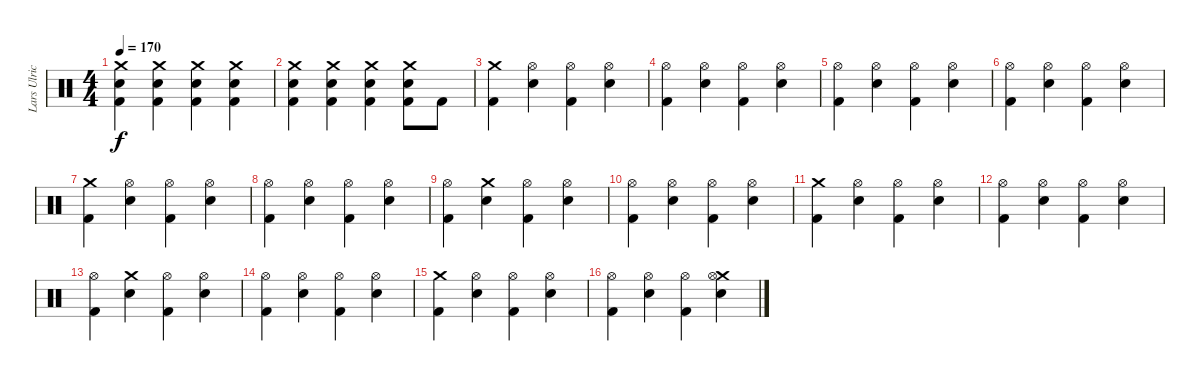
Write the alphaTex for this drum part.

\track ("Lars Ulrich" "Lars Ulric") {instrument percussion}
\staff {score}
\articulation defaults
\ts (4 4)
\tempo 170
\clef neutral
\ks c
("Crash medium (hit)" "Electric Snare (hit)" "Kick (hit) 2").4{dy f} ("Crash medium (hit)" "Electric Snare (hit)" "Kick (hit) 2").4 ("Crash medium (hit)" "Electric Snare (hit)" "Kick (hit) 2").4 ("Crash medium (hit)" "Electric Snare (hit)" "Kick (hit) 2").4 |
("Crash medium (hit)" "Electric Snare (hit)" "Kick (hit) 2").4 ("Crash medium (hit)" "Electric Snare (hit)" "Kick (hit) 2").4 ("Crash medium (hit)" "Electric Snare (hit)" "Kick (hit) 2").4 ("Crash medium (hit)" "Electric Snare (hit)" "Kick (hit) 2").8 "Kick (hit) 2".8 |
("Crash medium (hit)" "Kick (hit) 2").4 ("Hi-Hat (open)" "Electric Snare (hit)").4 ("Hi-Hat (open)" "Kick (hit) 2").4 ("Hi-Hat (open)" "Electric Snare (hit)").4 |
("Hi-Hat (open)" "Kick (hit) 2").4 ("Hi-Hat (open)" "Electric Snare (hit)").4 ("Hi-Hat (open)" "Kick (hit) 2").4 ("Hi-Hat (open)" "Electric Snare (hit)").4 |
("Hi-Hat (open)" "Kick (hit) 2").4 ("Hi-Hat (open)" "Electric Snare (hit)").4 ("Hi-Hat (open)" "Kick (hit) 2").4 ("Hi-Hat (open)" "Electric Snare (hit)").4 |
("Hi-Hat (open)" "Kick (hit) 2").4 ("Hi-Hat (open)" "Electric Snare (hit)").4 ("Hi-Hat (open)" "Kick (hit) 2").4 ("Hi-Hat (open)" "Electric Snare (hit)").4 |
("Crash medium (hit)" "Kick (hit) 2").4 ("Hi-Hat (open)" "Electric Snare (hit)").4 ("Hi-Hat (open)" "Kick (hit) 2").4 ("Hi-Hat (open)" "Electric Snare (hit)").4 |
("Hi-Hat (open)" "Kick (hit) 2").4 ("Hi-Hat (open)" "Electric Snare (hit)").4 ("Hi-Hat (open)" "Kick (hit) 2").4 ("Hi-Hat (open)" "Electric Snare (hit)").4 |
("Hi-Hat (open)" "Kick (hit) 2").4 ("Crash medium (hit)" "Electric Snare (hit)").4 ("Hi-Hat (open)" "Kick (hit) 2").4 ("Hi-Hat (open)" "Electric Snare (hit)").4 |
("Hi-Hat (open)" "Kick (hit) 2").4 ("Hi-Hat (open)" "Electric Snare (hit)").4 ("Hi-Hat (open)" "Kick (hit) 2").4 ("Hi-Hat (open)" "Electric Snare (hit)").4 |
("Crash medium (hit)" "Kick (hit) 2").4 ("Hi-Hat (open)" "Electric Snare (hit)").4 ("Hi-Hat (open)" "Kick (hit) 2").4 ("Hi-Hat (open)" "Electric Snare (hit)").4 |
("Hi-Hat (open)" "Kick (hit) 2").4 ("Hi-Hat (open)" "Electric Snare (hit)").4 ("Hi-Hat (open)" "Kick (hit) 2").4 ("Hi-Hat (open)" "Electric Snare (hit)").4 |
("Hi-Hat (open)" "Kick (hit) 2").4 ("Crash medium (hit)" "Electric Snare (hit)").4 ("Hi-Hat (open)" "Kick (hit) 2").4 ("Hi-Hat (open)" "Electric Snare (hit)").4 |
("Hi-Hat (open)" "Kick (hit) 2").4 ("Hi-Hat (open)" "Electric Snare (hit)").4 ("Hi-Hat (open)" "Kick (hit) 2").4 ("Hi-Hat (open)" "Electric Snare (hit)").4 |
("Crash medium (hit)" "Kick (hit) 2").4 ("Hi-Hat (open)" "Electric Snare (hit)").4 ("Hi-Hat (open)" "Kick (hit) 2").4 ("Hi-Hat (open)" "Electric Snare (hit)").4 |
("Hi-Hat (open)" "Kick (hit) 2").4 ("Hi-Hat (open)" "Electric Snare (hit)").4 ("Hi-Hat (open)" "Kick (hit) 2").4 ("Crash medium (hit)" "Hi-Hat (open)" "Electric Snare (hit)").4
